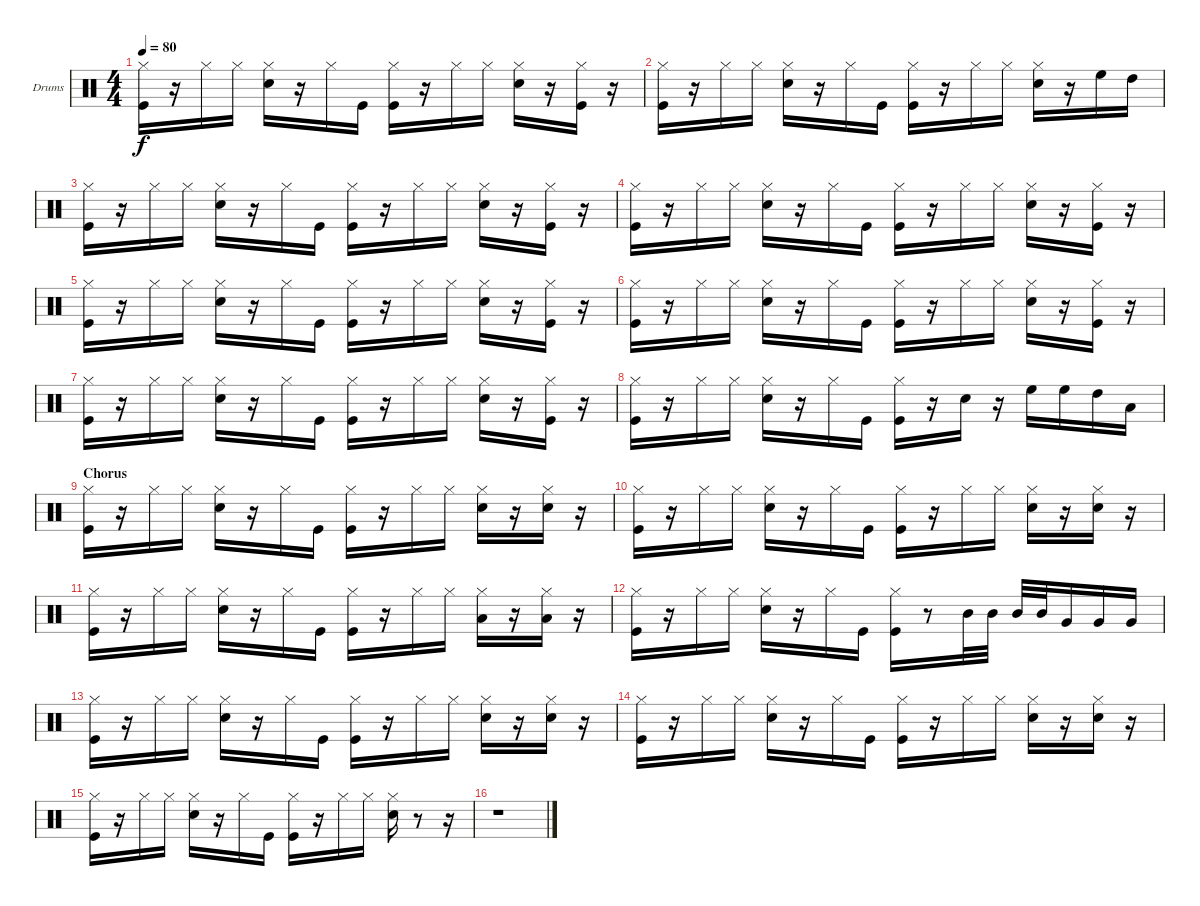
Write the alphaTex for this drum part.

\bracketExtendMode groupsimilarinstruments
\firstSystemTrackNameOrientation horizontal
\otherSystemsTrackNameOrientation horizontal
\track ("Drumkit" "Drums") {instrument percussion}
\staff {score}
\articulation defaults
\ts (4 4)
\tempo 80
\clef neutral
\ks c
("Kick (hit)" "Hi-Hat (closed)").16{dy f} r.16 "Hi-Hat (closed)".16 "Hi-Hat (closed)".16 ("Snare (hit) 2" "Hi-Hat (closed)").16 r.16 "Hi-Hat (closed)".16 "Kick (hit)".16 ("Kick (hit)" "Hi-Hat (closed)").16 r.16 "Hi-Hat (closed)".16 "Hi-Hat (closed)".16 ("Snare (hit) 2" "Hi-Hat (closed)").16 r.16 ("Kick (hit)" "Hi-Hat (closed)").16 r.16 |
("Kick (hit)" "Hi-Hat (closed)").16 r.16 "Hi-Hat (closed)".16 "Hi-Hat (closed)".16 ("Snare (hit) 2" "Hi-Hat (closed)").16 r.16 "Hi-Hat (closed)".16 "Kick (hit)".16 ("Kick (hit)" "Hi-Hat (closed)").16 r.16 "Hi-Hat (closed)".16 "Hi-Hat (closed)".16 ("Snare (hit) 2" "Hi-Hat (closed)").16 r.16 "High Floor Tom (hit)".16 "High Tom (hit)".16 |
("Kick (hit)" "Hi-Hat (closed)").16 r.16 "Hi-Hat (closed)".16 "Hi-Hat (closed)".16 ("Snare (hit) 2" "Hi-Hat (closed)").16 r.16 "Hi-Hat (closed)".16 "Kick (hit)".16 ("Kick (hit)" "Hi-Hat (closed)").16 r.16 "Hi-Hat (closed)".16 "Hi-Hat (closed)".16 ("Snare (hit) 2" "Hi-Hat (closed)").16 r.16 ("Kick (hit)" "Hi-Hat (closed)").16 r.16 |
("Kick (hit)" "Hi-Hat (closed)").16 r.16 "Hi-Hat (closed)".16 "Hi-Hat (closed)".16 ("Snare (hit) 2" "Hi-Hat (closed)").16 r.16 "Hi-Hat (closed)".16 "Kick (hit)".16 ("Kick (hit)" "Hi-Hat (closed)").16 r.16 "Hi-Hat (closed)".16 "Hi-Hat (closed)".16 ("Snare (hit) 2" "Hi-Hat (closed)").16 r.16 ("Kick (hit)" "Hi-Hat (closed)").16 r.16 |
("Kick (hit)" "Hi-Hat (closed)").16 r.16 "Hi-Hat (closed)".16 "Hi-Hat (closed)".16 ("Snare (hit) 2" "Hi-Hat (closed)").16 r.16 "Hi-Hat (closed)".16 "Kick (hit)".16 ("Kick (hit)" "Hi-Hat (closed)").16 r.16 "Hi-Hat (closed)".16 "Hi-Hat (closed)".16 ("Snare (hit) 2" "Hi-Hat (closed)").16 r.16 ("Kick (hit)" "Hi-Hat (closed)").16 r.16 |
("Kick (hit)" "Hi-Hat (closed)").16 r.16 "Hi-Hat (closed)".16 "Hi-Hat (closed)".16 ("Snare (hit) 2" "Hi-Hat (closed)").16 r.16 "Hi-Hat (closed)".16 "Kick (hit)".16 ("Kick (hit)" "Hi-Hat (closed)").16 r.16 "Hi-Hat (closed)".16 "Hi-Hat (closed)".16 ("Snare (hit) 2" "Hi-Hat (closed)").16 r.16 ("Kick (hit)" "Hi-Hat (closed)").16 r.16 |
("Kick (hit)" "Hi-Hat (closed)").16 r.16 "Hi-Hat (closed)".16 "Hi-Hat (closed)".16 ("Snare (hit) 2" "Hi-Hat (closed)").16 r.16 "Hi-Hat (closed)".16 "Kick (hit)".16 ("Kick (hit)" "Hi-Hat (closed)").16 r.16 "Hi-Hat (closed)".16 "Hi-Hat (closed)".16 ("Snare (hit) 2" "Hi-Hat (closed)").16 r.16 ("Kick (hit)" "Hi-Hat (closed)").16 r.16 |
("Kick (hit)" "Hi-Hat (closed)").16 r.16 "Hi-Hat (closed)".16 "Hi-Hat (closed)".16 ("Snare (hit) 2" "Hi-Hat (closed)").16 r.16 "Hi-Hat (closed)".16 "Kick (hit)".16 ("Kick (hit)" "Hi-Hat (closed)").16 r.16 "Snare (hit) 2".16 r.16 "High Floor Tom (hit)".16 "High Floor Tom (hit)".16 "High Tom (hit)".16 "Low Tom (hit)".16 |
\section ("" "Chorus")
("Kick (hit)" "Hi-Hat (closed)").16 r.16 "Hi-Hat (closed)".16 "Hi-Hat (closed)".16 ("Snare (hit) 2" "Hi-Hat (closed)").16 r.16 "Hi-Hat (closed)".16 "Kick (hit)".16 ("Kick (hit)" "Hi-Hat (closed)").16 r.16 "Hi-Hat (closed)".16 "Hi-Hat (closed)".16 ("Snare (hit) 2" "Hi-Hat (closed)").16 r.16 ("Snare (hit) 2" "Hi-Hat (closed)").16 r.16 |
("Kick (hit)" "Hi-Hat (closed)").16 r.16 "Hi-Hat (closed)".16 "Hi-Hat (closed)".16 ("Snare (hit) 2" "Hi-Hat (closed)").16 r.16 "Hi-Hat (closed)".16 "Kick (hit)".16 ("Kick (hit)" "Hi-Hat (closed)").16 r.16 "Hi-Hat (closed)".16 "Hi-Hat (closed)".16 ("Snare (hit) 2" "Hi-Hat (closed)").16 r.16 ("Snare (hit) 2" "Hi-Hat (closed)").16 r.16 |
("Kick (hit)" "Hi-Hat (closed)").16 r.16 "Hi-Hat (closed)".16 "Hi-Hat (closed)".16 ("Snare (hit) 2" "Hi-Hat (closed)").16 r.16 "Hi-Hat (closed)".16 "Kick (hit)".16 ("Kick (hit)" "Hi-Hat (closed)").16 r.16 "Hi-Hat (closed)".16 "Hi-Hat (closed)".16 ("Low Tom (hit)" "Hi-Hat (closed)").16 r.16 ("Low Tom (hit)" "Hi-Hat (closed)").16 r.16 |
("Kick (hit)" "Hi-Hat (closed)").16 r.16 "Hi-Hat (closed)".16 "Hi-Hat (closed)".16 ("Snare (hit) 2" "Hi-Hat (closed)").16 r.16 "Hi-Hat (closed)".16 "Kick (hit)".16 ("Kick (hit)" "Hi-Hat (closed)").16 r.8 "Mid Tom (hit)".32 "Mid Tom (hit)".32 "Mid Tom (hit)".32 "Mid Tom (hit)".32 "Very Low Tom (hit)".16 "Very Low Tom (hit)".16 "Very Low Tom (hit)".16 |
("Kick (hit)" "Hi-Hat (closed)").16 r.16 "Hi-Hat (closed)".16 "Hi-Hat (closed)".16 ("Snare (hit) 2" "Hi-Hat (closed)").16 r.16 "Hi-Hat (closed)".16 "Kick (hit)".16 ("Kick (hit)" "Hi-Hat (closed)").16 r.16 "Hi-Hat (closed)".16 "Hi-Hat (closed)".16 ("Snare (hit) 2" "Hi-Hat (closed)").16 r.16 ("Snare (hit) 2" "Hi-Hat (closed)").16 r.16 |
("Kick (hit)" "Hi-Hat (closed)").16 r.16 "Hi-Hat (closed)".16 "Hi-Hat (closed)".16 ("Snare (hit) 2" "Hi-Hat (closed)").16 r.16 "Hi-Hat (closed)".16 "Kick (hit)".16 ("Kick (hit)" "Hi-Hat (closed)").16 r.16 "Hi-Hat (closed)".16 "Hi-Hat (closed)".16 ("Snare (hit) 2" "Hi-Hat (closed)").16 r.16 ("Snare (hit) 2" "Hi-Hat (closed)").16 r.16 |
("Kick (hit)" "Hi-Hat (closed)").16 r.16 "Hi-Hat (closed)".16 "Hi-Hat (closed)".16 ("Snare (hit) 2" "Hi-Hat (closed)").16 r.16 "Hi-Hat (closed)".16 "Kick (hit)".16 ("Kick (hit)" "Hi-Hat (closed)").16 r.16 "Hi-Hat (closed)".16 "Hi-Hat (closed)".16 ("Snare (hit) 2" "Hi-Hat (closed)").16 r.8 r.16 |
r.1
